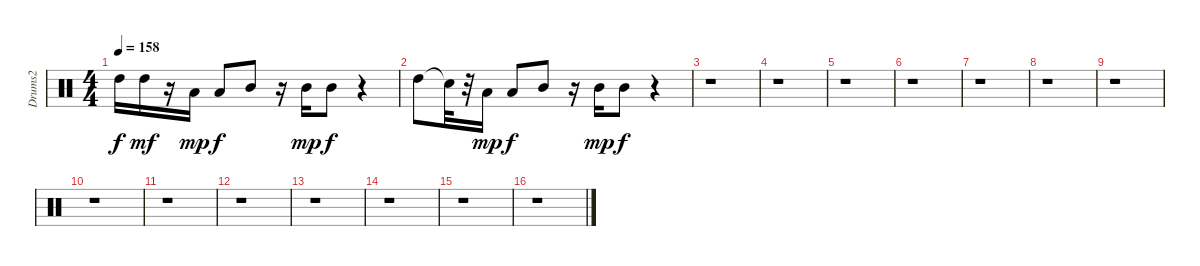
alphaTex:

\track ("Drums2" "Drums2") {instrument percussion}
\staff {score}
\articulation defaults
\ts (4 4)
\tempo 158
\clef neutral
\ks c "High Tom (hit)".16{dy f} "High Tom (hit)".16{dy mf}
r.16 "Low Tom (hit)".16{dy mp} "Low Tom (hit)".8{dy f} "Mid Tom (hit)".8 r.16 "Mid Tom (hit)".16{dy mp} "Mid Tom (hit)".8{dy f} r.4 |
"High Tom (hit)".8 "Snare (hit)"{t}.32 r.32 "Low Tom (hit)".16{dy mp} "Low Tom (hit)".8{dy f} "Mid Tom (hit)".8 r.16 "Mid Tom (hit)".16{dy mp} "Mid Tom (hit)".8{dy f} r.4 |
r.1 |
r.1 |
r.1 |
r.1 |
r.1 |
r.1 |
r.1 |
r.1 |
r.1 |
r.1 |
r.1 |
r.1 |
r.1 |
r.1
